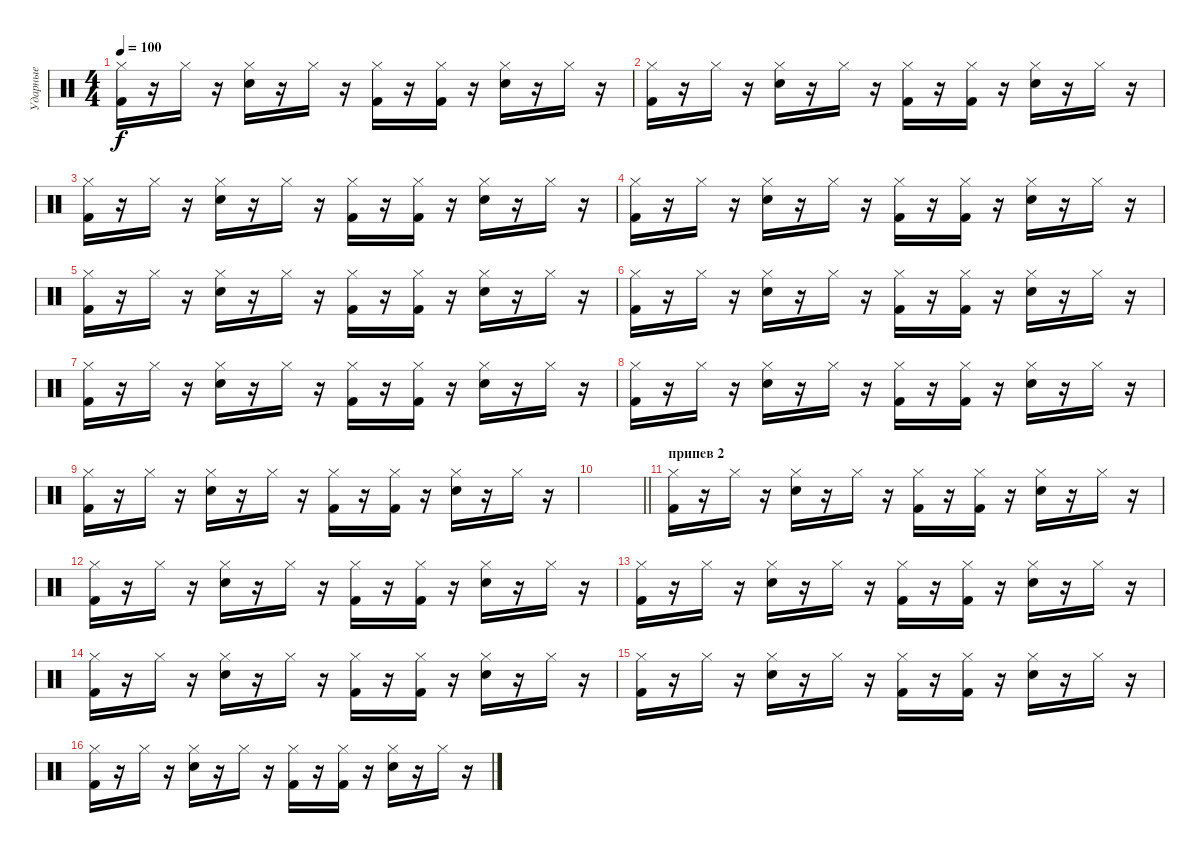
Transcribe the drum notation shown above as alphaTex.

\track ("Ударные" "Ударные") {instrument percussion}
\staff {score}
\articulation defaults
\ts (4 4)
\tempo 100
\clef neutral
\ks c
("Kick (hit) 2" "Hi-Hat (closed)").16{dy f} r.16 "Hi-Hat (closed)".16 r.16 ("Snare (hit) 2" "Hi-Hat (closed)").16 r.16 "Hi-Hat (closed)".16 r.16 ("Kick (hit) 2" "Hi-Hat (closed)").16 r.16 ("Kick (hit) 2" "Hi-Hat (closed)").16 r.16 ("Snare (hit) 2" "Hi-Hat (closed)").16 r.16 "Hi-Hat (closed)".16 r.16 |
("Kick (hit) 2" "Hi-Hat (closed)").16 r.16 "Hi-Hat (closed)".16 r.16 ("Snare (hit) 2" "Hi-Hat (closed)").16 r.16 "Hi-Hat (closed)".16 r.16 ("Kick (hit) 2" "Hi-Hat (closed)").16 r.16 ("Kick (hit) 2" "Hi-Hat (closed)").16 r.16 ("Snare (hit) 2" "Hi-Hat (closed)").16 r.16 "Hi-Hat (closed)".16 r.16 |
("Kick (hit) 2" "Hi-Hat (closed)").16 r.16 "Hi-Hat (closed)".16 r.16 ("Snare (hit) 2" "Hi-Hat (closed)").16 r.16 "Hi-Hat (closed)".16 r.16 ("Kick (hit) 2" "Hi-Hat (closed)").16 r.16 ("Kick (hit) 2" "Hi-Hat (closed)").16 r.16 ("Snare (hit) 2" "Hi-Hat (closed)").16 r.16 "Hi-Hat (closed)".16 r.16 |
("Kick (hit) 2" "Hi-Hat (closed)").16 r.16 "Hi-Hat (closed)".16 r.16 ("Snare (hit) 2" "Hi-Hat (closed)").16 r.16 "Hi-Hat (closed)".16 r.16 ("Kick (hit) 2" "Hi-Hat (closed)").16 r.16 ("Kick (hit) 2" "Hi-Hat (closed)").16 r.16 ("Snare (hit) 2" "Hi-Hat (closed)").16 r.16 "Hi-Hat (closed)".16 r.16 |
("Kick (hit) 2" "Hi-Hat (closed)").16 r.16 "Hi-Hat (closed)".16 r.16 ("Snare (hit) 2" "Hi-Hat (closed)").16 r.16 "Hi-Hat (closed)".16 r.16 ("Kick (hit) 2" "Hi-Hat (closed)").16 r.16 ("Kick (hit) 2" "Hi-Hat (closed)").16 r.16 ("Snare (hit) 2" "Hi-Hat (closed)").16 r.16 "Hi-Hat (closed)".16 r.16 |
("Kick (hit) 2" "Hi-Hat (closed)").16 r.16 "Hi-Hat (closed)".16 r.16 ("Snare (hit) 2" "Hi-Hat (closed)").16 r.16 "Hi-Hat (closed)".16 r.16 ("Kick (hit) 2" "Hi-Hat (closed)").16 r.16 ("Kick (hit) 2" "Hi-Hat (closed)").16 r.16 ("Snare (hit) 2" "Hi-Hat (closed)").16 r.16 "Hi-Hat (closed)".16 r.16 |
("Kick (hit) 2" "Hi-Hat (closed)").16 r.16 "Hi-Hat (closed)".16 r.16 ("Snare (hit) 2" "Hi-Hat (closed)").16 r.16 "Hi-Hat (closed)".16 r.16 ("Kick (hit) 2" "Hi-Hat (closed)").16 r.16 ("Kick (hit) 2" "Hi-Hat (closed)").16 r.16 ("Snare (hit) 2" "Hi-Hat (closed)").16 r.16 "Hi-Hat (closed)".16 r.16 |
("Kick (hit) 2" "Hi-Hat (closed)").16 r.16 "Hi-Hat (closed)".16 r.16 ("Snare (hit) 2" "Hi-Hat (closed)").16 r.16 "Hi-Hat (closed)".16 r.16 ("Kick (hit) 2" "Hi-Hat (closed)").16 r.16 ("Kick (hit) 2" "Hi-Hat (closed)").16 r.16 ("Snare (hit) 2" "Hi-Hat (closed)").16 r.16 "Hi-Hat (closed)".16 r.16 |
("Kick (hit) 2" "Hi-Hat (closed)").16 r.16 "Hi-Hat (closed)".16 r.16 ("Snare (hit) 2" "Hi-Hat (closed)").16 r.16 "Hi-Hat (closed)".16 r.16 ("Kick (hit) 2" "Hi-Hat (closed)").16 r.16 ("Kick (hit) 2" "Hi-Hat (closed)").16 r.16 ("Snare (hit) 2" "Hi-Hat (closed)").16 r.16 "Hi-Hat (closed)".16 r.16 |
\barLineRight lightlight
|
\section ("" "припев 2")
("Kick (hit) 2" "Hi-Hat (closed)").16 r.16 "Hi-Hat (closed)".16 r.16 ("Snare (hit) 2" "Hi-Hat (closed)").16 r.16 "Hi-Hat (closed)".16 r.16 ("Kick (hit) 2" "Hi-Hat (closed)").16 r.16 ("Kick (hit) 2" "Hi-Hat (closed)").16 r.16 ("Snare (hit) 2" "Hi-Hat (closed)").16 r.16 "Hi-Hat (closed)".16 r.16 |
("Kick (hit) 2" "Hi-Hat (closed)").16 r.16 "Hi-Hat (closed)".16 r.16 ("Snare (hit) 2" "Hi-Hat (closed)").16 r.16 "Hi-Hat (closed)".16 r.16 ("Kick (hit) 2" "Hi-Hat (closed)").16 r.16 ("Kick (hit) 2" "Hi-Hat (closed)").16 r.16 ("Snare (hit) 2" "Hi-Hat (closed)").16 r.16 "Hi-Hat (closed)".16 r.16 |
("Kick (hit) 2" "Hi-Hat (closed)").16 r.16 "Hi-Hat (closed)".16 r.16 ("Snare (hit) 2" "Hi-Hat (closed)").16 r.16 "Hi-Hat (closed)".16 r.16 ("Kick (hit) 2" "Hi-Hat (closed)").16 r.16 ("Kick (hit) 2" "Hi-Hat (closed)").16 r.16 ("Snare (hit) 2" "Hi-Hat (closed)").16 r.16 "Hi-Hat (closed)".16 r.16 |
("Kick (hit) 2" "Hi-Hat (closed)").16 r.16 "Hi-Hat (closed)".16 r.16 ("Snare (hit) 2" "Hi-Hat (closed)").16 r.16 "Hi-Hat (closed)".16 r.16 ("Kick (hit) 2" "Hi-Hat (closed)").16 r.16 ("Kick (hit) 2" "Hi-Hat (closed)").16 r.16 ("Snare (hit) 2" "Hi-Hat (closed)").16 r.16 "Hi-Hat (closed)".16 r.16 |
("Kick (hit) 2" "Hi-Hat (closed)").16 r.16 "Hi-Hat (closed)".16 r.16 ("Snare (hit) 2" "Hi-Hat (closed)").16 r.16 "Hi-Hat (closed)".16 r.16 ("Kick (hit) 2" "Hi-Hat (closed)").16 r.16 ("Kick (hit) 2" "Hi-Hat (closed)").16 r.16 ("Snare (hit) 2" "Hi-Hat (closed)").16 r.16 "Hi-Hat (closed)".16 r.16 |
("Kick (hit) 2" "Hi-Hat (closed)").16 r.16 "Hi-Hat (closed)".16 r.16 ("Snare (hit) 2" "Hi-Hat (closed)").16 r.16 "Hi-Hat (closed)".16 r.16 ("Kick (hit) 2" "Hi-Hat (closed)").16 r.16 ("Kick (hit) 2" "Hi-Hat (closed)").16 r.16 ("Snare (hit) 2" "Hi-Hat (closed)").16 r.16 "Hi-Hat (closed)".16 r.16
